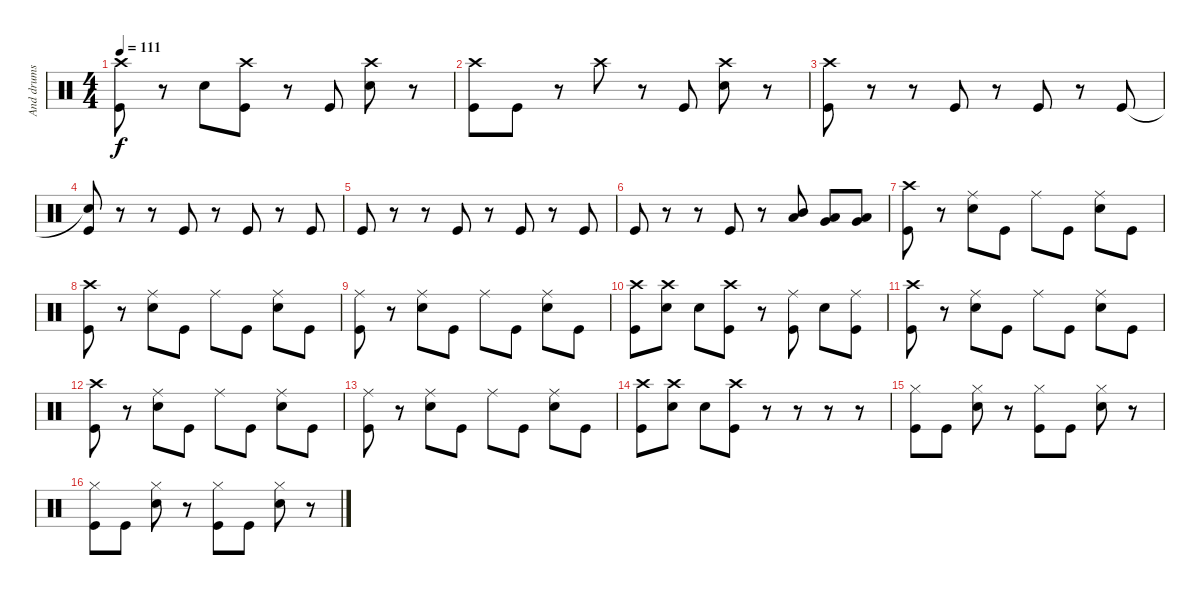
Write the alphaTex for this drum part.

\track ("And drums" "And drums") {instrument percussion}
\staff {score}
\articulation defaults
\ts (4 4)
\tempo 111
\clef neutral
\ks c
("Crash high (hit)" "Kick (hit)").8{dy f} r.8 "Snare (hit) 2".8 ("Crash high (hit)" "Kick (hit)").8 r.8 "Kick (hit)".8 ("Crash high (hit)" "Snare (hit) 2").8 r.8 |
("Crash high (hit)" "Kick (hit)").8 "Kick (hit)".8 r.8 "Crash high (hit)".8 r.8 "Kick (hit)".8 ("Crash high (hit)" "Snare (hit) 2").8 r.8 |
("Crash high (hit)" "Kick (hit)").8 r.8 r.8 "Kick (hit)".8 r.8 "Kick (hit)".8 r.8 "Kick (hit)".8 |
("Snare (hit)"{t} "Kick (hit)").8 r.8 r.8 "Kick (hit)".8 r.8 "Kick (hit)".8 r.8 "Kick (hit)".8 |
"Kick (hit)".8 r.8 r.8 "Kick (hit)".8 r.8 "Kick (hit)".8 r.8 "Kick (hit)".8 |
"Kick (hit)".8 r.8 r.8 "Kick (hit)".8 r.8 ("Mid Tom (hit)" "Low Tom (hit)").8 ("Low Tom (hit)" "Very Low Tom (hit)").8 ("Very Low Tom (hit)" "Low Floor Tom (hit)").8 |
("Crash high (hit)" "Kick (hit)").8 r.8 ("Ride (middle)" "Snare (hit) 2").8 "Kick (hit)".8 "Ride (middle)".8 "Kick (hit)".8 ("Ride (middle)" "Snare (hit) 2").8 "Kick (hit)".8 |
("Crash high (hit)" "Kick (hit)").8 r.8 ("Ride (middle)" "Snare (hit) 2").8 "Kick (hit)".8 "Ride (middle)".8 "Kick (hit)".8 ("Ride (middle)" "Snare (hit) 2").8 "Kick (hit)".8 |
("Ride (middle)" "Kick (hit)").8 r.8 ("Ride (middle)" "Snare (hit) 2").8 "Kick (hit)".8 "Ride (middle)".8 "Kick (hit)".8 ("Ride (middle)" "Snare (hit) 2").8 "Kick (hit)".8 |
("Crash high (hit)" "Kick (hit)").8 ("Crash high (hit)" "Snare (hit) 2").8 "Snare (hit) 2".8 ("Crash high (hit)" "Kick (hit)").8 r.8 ("Ride (middle)" "Kick (hit)").8 "Snare (hit) 2".8 ("Ride (middle)" "Kick (hit)").8 |
("Crash high (hit)" "Kick (hit)").8 r.8 ("Ride (middle)" "Snare (hit) 2").8 "Kick (hit)".8 "Ride (middle)".8 "Kick (hit)".8 ("Ride (middle)" "Snare (hit) 2").8 "Kick (hit)".8 |
("Crash high (hit)" "Kick (hit)").8 r.8 ("Ride (middle)" "Snare (hit) 2").8 "Kick (hit)".8 "Ride (middle)".8 "Kick (hit)".8 ("Ride (middle)" "Snare (hit) 2").8 "Kick (hit)".8 |
("Ride (middle)" "Kick (hit)").8 r.8 ("Ride (middle)" "Snare (hit) 2").8 "Kick (hit)".8 "Ride (middle)".8 "Kick (hit)".8 ("Ride (middle)" "Snare (hit) 2").8 "Kick (hit)".8 |
("Crash high (hit)" "Kick (hit)").8 ("Crash high (hit)" "Snare (hit) 2").8 "Snare (hit) 2".8 ("Crash high (hit)" "Kick (hit)").8 r.8 r.8 r.8 r.8 |
("Hi-Hat (closed)" "Kick (hit)").8 "Kick (hit)".8 ("Hi-Hat (closed)" "Snare (hit) 2").8 r.8 ("Hi-Hat (closed)" "Kick (hit)").8 "Kick (hit)".8 ("Hi-Hat (closed)" "Snare (hit) 2").8 r.8 |
("Hi-Hat (closed)" "Kick (hit)").8 "Kick (hit)".8 ("Hi-Hat (closed)" "Snare (hit) 2").8 r.8 ("Hi-Hat (closed)" "Kick (hit)").8 "Kick (hit)".8 ("Hi-Hat (closed)" "Snare (hit) 2").8 r.8
